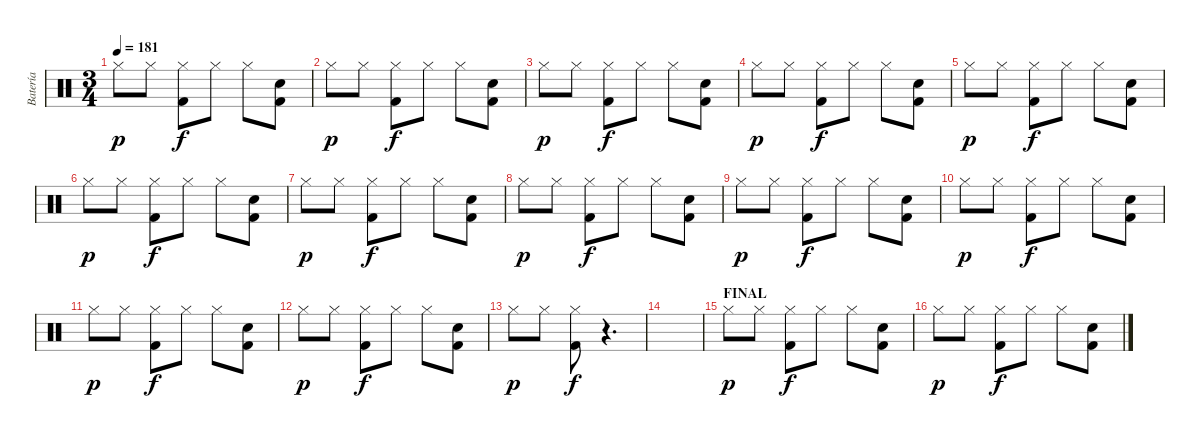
\track ("Batería" "Batería") {instrument percussion}
\staff {score}
\articulation defaults
\ts (3 4)
\tempo 181
\clef neutral
\ks c "Hi-Hat (closed)".8{dy p} "Hi-Hat (closed)".8
("Hi-Hat (closed)" "Kick (hit) 2").8{dy f} "Hi-Hat (closed)".8 "Hi-Hat (closed)".8 ("Electric Snare (hit)" "Kick (hit) 2").8 |
"Hi-Hat (closed)".8{dy p} "Hi-Hat (closed)".8 ("Hi-Hat (closed)" "Kick (hit) 2").8{dy f} "Hi-Hat (closed)".8 "Hi-Hat (closed)".8 ("Electric Snare (hit)" "Kick (hit) 2").8 |
"Hi-Hat (closed)".8{dy p} "Hi-Hat (closed)".8 ("Hi-Hat (closed)" "Kick (hit) 2").8{dy f} "Hi-Hat (closed)".8 "Hi-Hat (closed)".8 ("Electric Snare (hit)" "Kick (hit) 2").8 |
"Hi-Hat (closed)".8{dy p} "Hi-Hat (closed)".8 ("Hi-Hat (closed)" "Kick (hit) 2").8{dy f} "Hi-Hat (closed)".8 "Hi-Hat (closed)".8 ("Electric Snare (hit)" "Kick (hit) 2").8 |
"Hi-Hat (closed)".8{dy p} "Hi-Hat (closed)".8 ("Hi-Hat (closed)" "Kick (hit) 2").8{dy f} "Hi-Hat (closed)".8 "Hi-Hat (closed)".8 ("Electric Snare (hit)" "Kick (hit) 2").8 |
"Hi-Hat (closed)".8{dy p} "Hi-Hat (closed)".8 ("Hi-Hat (closed)" "Kick (hit) 2").8{dy f} "Hi-Hat (closed)".8 "Hi-Hat (closed)".8 ("Electric Snare (hit)" "Kick (hit) 2").8 |
"Hi-Hat (closed)".8{dy p} "Hi-Hat (closed)".8 ("Hi-Hat (closed)" "Kick (hit) 2").8{dy f} "Hi-Hat (closed)".8 "Hi-Hat (closed)".8 ("Electric Snare (hit)" "Kick (hit) 2").8 |
"Hi-Hat (closed)".8{dy p} "Hi-Hat (closed)".8 ("Hi-Hat (closed)" "Kick (hit) 2").8{dy f} "Hi-Hat (closed)".8 "Hi-Hat (closed)".8 ("Electric Snare (hit)" "Kick (hit) 2").8 |
"Hi-Hat (closed)".8{dy p} "Hi-Hat (closed)".8 ("Hi-Hat (closed)" "Kick (hit) 2").8{dy f} "Hi-Hat (closed)".8 "Hi-Hat (closed)".8 ("Electric Snare (hit)" "Kick (hit) 2").8 |
"Hi-Hat (closed)".8{dy p} "Hi-Hat (closed)".8 ("Hi-Hat (closed)" "Kick (hit) 2").8{dy f} "Hi-Hat (closed)".8 "Hi-Hat (closed)".8 ("Electric Snare (hit)" "Kick (hit) 2").8 |
"Hi-Hat (closed)".8{dy p} "Hi-Hat (closed)".8 ("Hi-Hat (closed)" "Kick (hit) 2").8{dy f} "Hi-Hat (closed)".8 "Hi-Hat (closed)".8 ("Electric Snare (hit)" "Kick (hit) 2").8 |
"Hi-Hat (closed)".8{dy p} "Hi-Hat (closed)".8 ("Hi-Hat (closed)" "Kick (hit) 2").8{dy f} "Hi-Hat (closed)".8 "Hi-Hat (closed)".8 ("Electric Snare (hit)" "Kick (hit) 2").8 |
"Hi-Hat (closed)".8{dy p} "Hi-Hat (closed)".8 ("Hi-Hat (closed)" "Kick (hit) 2").8{dy f} r.4{d} |
|
\section ("" "FINAL")
"Hi-Hat (closed)".8{dy p} "Hi-Hat (closed)".8 ("Hi-Hat (closed)" "Kick (hit) 2").8{dy f} "Hi-Hat (closed)".8 "Hi-Hat (closed)".8 ("Electric Snare (hit)" "Kick (hit) 2").8 |
"Hi-Hat (closed)".8{dy p} "Hi-Hat (closed)".8 ("Hi-Hat (closed)" "Kick (hit) 2").8{dy f} "Hi-Hat (closed)".8 "Hi-Hat (closed)".8 ("Electric Snare (hit)" "Kick (hit) 2").8
